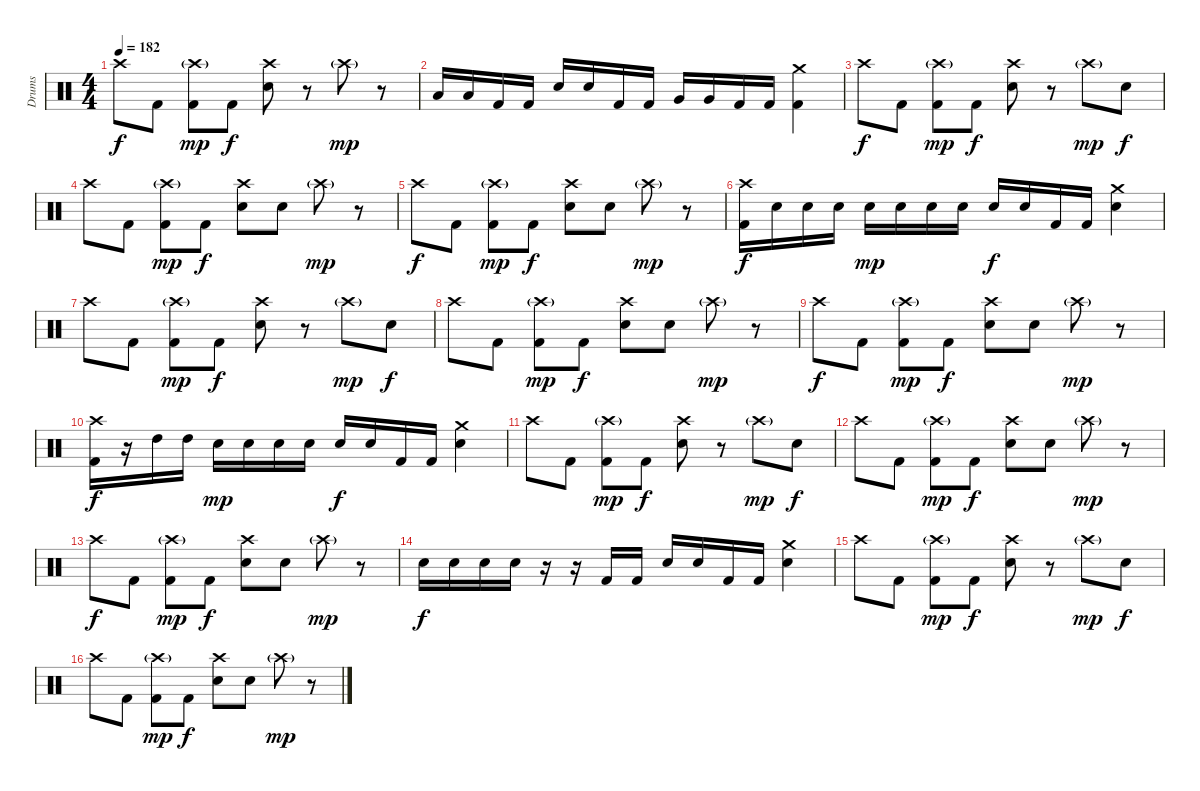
\track ("Drums" "Drums") {instrument percussion}
\staff {score}
\articulation defaults
\ts (4 4)
\tempo 182
\clef neutral
\ks c "Crash high (hit)".8{dy f} "Kick (hit) 2".8
("Kick (hit) 2" "Crash high (hit)"{g}).8{dy mp} "Kick (hit) 2".8{dy f} ("Crash high (hit)" "Electric Snare (hit)").8 r.8 "Crash high (hit)"{g}.8{dy mp} r.8 |
"Low Floor Tom (hit)".16 "Low Floor Tom (hit)".16 "Kick (hit) 2".16 "Kick (hit) 2".16 "Electric Snare (hit)".16 "Electric Snare (hit)".16 "Kick (hit) 2".16 "Kick (hit) 2".16 "Very Low Tom (hit)".16 "Very Low Tom (hit)".16 "Kick (hit) 2".16 "Kick (hit) 2".16 ("Kick (hit) 2" "Crash medium (hit)").4 |
"Crash high (hit)".8{dy f} "Kick (hit) 2".8 ("Kick (hit) 2" "Crash high (hit)"{g}).8{dy mp} "Kick (hit) 2".8{dy f} ("Crash high (hit)" "Electric Snare (hit)").8 r.8 "Crash high (hit)"{g}.8{dy mp} "Electric Snare (hit)".8{dy f} |
"Crash high (hit)".8 "Kick (hit) 2".8 ("Kick (hit) 2" "Crash high (hit)"{g}).8{dy mp} "Kick (hit) 2".8{dy f} ("Crash high (hit)" "Electric Snare (hit)").8 "Electric Snare (hit)".8 "Crash high (hit)"{g}.8{dy mp} r.8 |
"Crash high (hit)".8{dy f} "Kick (hit) 2".8 ("Kick (hit) 2" "Crash high (hit)"{g}).8{dy mp} "Kick (hit) 2".8{dy f} ("Crash high (hit)" "Electric Snare (hit)").8 "Electric Snare (hit)".8 "Crash high (hit)"{g}.8{dy mp} r.8 |
("Kick (hit) 2" "Crash high (hit)").16{dy f} "Electric Snare (hit)".16 "Electric Snare (hit)".16 "Electric Snare (hit)".16 "Electric Snare (hit)".16{dy mp} "Electric Snare (hit)".16 "Electric Snare (hit)".16 "Electric Snare (hit)".16 "Electric Snare (hit)".16{dy f} "Electric Snare (hit)".16 "Kick (hit) 2".16 "Kick (hit) 2".16 ("Electric Snare (hit)" "Crash medium (hit)").4 |
"Crash high (hit)".8 "Kick (hit) 2".8 ("Kick (hit) 2" "Crash high (hit)"{g}).8{dy mp} "Kick (hit) 2".8{dy f} ("Crash high (hit)" "Electric Snare (hit)").8 r.8 "Crash high (hit)"{g}.8{dy mp} "Electric Snare (hit)".8{dy f} |
"Crash high (hit)".8 "Kick (hit) 2".8 ("Kick (hit) 2" "Crash high (hit)"{g}).8{dy mp} "Kick (hit) 2".8{dy f} ("Crash high (hit)" "Electric Snare (hit)").8 "Electric Snare (hit)".8 "Crash high (hit)"{g}.8{dy mp} r.8 |
"Crash high (hit)".8{dy f} "Kick (hit) 2".8 ("Kick (hit) 2" "Crash high (hit)"{g}).8{dy mp} "Kick (hit) 2".8{dy f} ("Crash high (hit)" "Electric Snare (hit)").8 "Electric Snare (hit)".8 "Crash high (hit)"{g}.8{dy mp} r.8 |
("Kick (hit) 2" "Crash high (hit)").16{dy f} r.16 "High Tom (hit)".16 "High Tom (hit)".16 "Electric Snare (hit)".16{dy mp} "Electric Snare (hit)".16 "Electric Snare (hit)".16 "Electric Snare (hit)".16 "Electric Snare (hit)".16{dy f} "Electric Snare (hit)".16 "Kick (hit) 2".16 "Kick (hit) 2".16 ("Electric Snare (hit)" "Crash medium (hit)").4 |
"Crash high (hit)".8 "Kick (hit) 2".8 ("Kick (hit) 2" "Crash high (hit)"{g}).8{dy mp} "Kick (hit) 2".8{dy f} ("Crash high (hit)" "Electric Snare (hit)").8 r.8 "Crash high (hit)"{g}.8{dy mp} "Electric Snare (hit)".8{dy f} |
"Crash high (hit)".8 "Kick (hit) 2".8 ("Kick (hit) 2" "Crash high (hit)"{g}).8{dy mp} "Kick (hit) 2".8{dy f} ("Crash high (hit)" "Electric Snare (hit)").8 "Electric Snare (hit)".8 "Crash high (hit)"{g}.8{dy mp} r.8 |
"Crash high (hit)".8{dy f} "Kick (hit) 2".8 ("Kick (hit) 2" "Crash high (hit)"{g}).8{dy mp} "Kick (hit) 2".8{dy f} ("Crash high (hit)" "Electric Snare (hit)").8 "Electric Snare (hit)".8 "Crash high (hit)"{g}.8{dy mp} r.8 |
"Electric Snare (hit)".16{dy f} "Electric Snare (hit)".16 "Electric Snare (hit)".16 "Electric Snare (hit)".16 r.16 r.16 "Kick (hit) 2".16 "Kick (hit) 2".16 "Electric Snare (hit)".16 "Electric Snare (hit)".16 "Kick (hit) 2".16 "Kick (hit) 2".16 ("Electric Snare (hit)" "Crash medium (hit)").4 |
"Crash high (hit)".8 "Kick (hit) 2".8 ("Kick (hit) 2" "Crash high (hit)"{g}).8{dy mp} "Kick (hit) 2".8{dy f} ("Crash high (hit)" "Electric Snare (hit)").8 r.8 "Crash high (hit)"{g}.8{dy mp} "Electric Snare (hit)".8{dy f} |
"Crash high (hit)".8 "Kick (hit) 2".8 ("Kick (hit) 2" "Crash high (hit)"{g}).8{dy mp} "Kick (hit) 2".8{dy f} ("Crash high (hit)" "Electric Snare (hit)").8 "Electric Snare (hit)".8 "Crash high (hit)"{g}.8{dy mp} r.8
